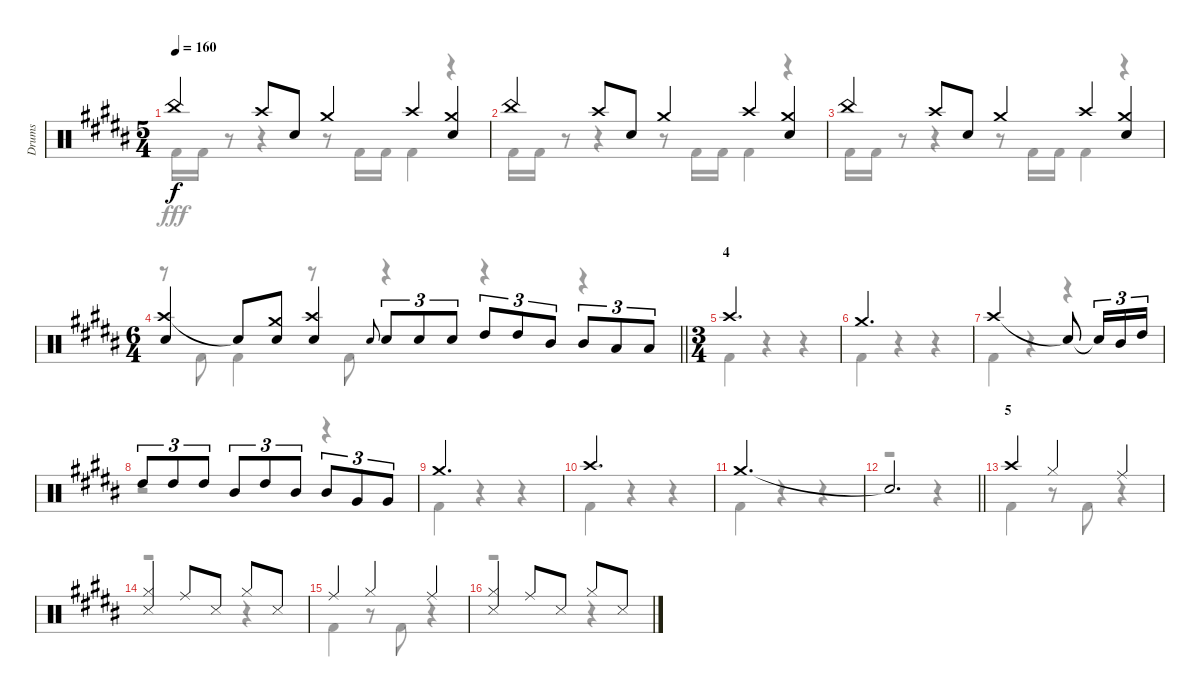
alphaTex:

\track ("Drums" "Drums") {instrument percussion}
\staff {score}
\articulation defaults
\voice
\ts (5 4)
\tempo 160
\clef neutral
\ks b "China (hit)".4{dy f} "Crash high (hit)".8 "Snare (hit) 2".8 "Crash medium (hit)".4 "Crash high (hit)".4
("Crash medium (hit)" "Snare (hit) 2").4 |
"China (hit)".4 "Crash high (hit)".8 "Snare (hit) 2".8 "Crash medium (hit)".4 "Crash high (hit)".4 ("Crash medium (hit)" "Snare (hit) 2").4 |
"China (hit)".4 "Crash high (hit)".8 "Snare (hit) 2".8 "Crash medium (hit)".4 "Crash high (hit)".4 ("Crash medium (hit)" "Snare (hit) 2").4 |
\ts (6 4)
\barLineRight lightlight
("Crash high (hit)" "Snare (hit) 2").4 "Snare (hit)"{t}.8 ("Crash medium (hit)" "Snare (hit) 2").8 ("Crash high (hit)" "Snare (hit) 2").4 "Snare (hit) 2".8{gr onbeat} "Snare (hit) 2".8{tu (3 2)} "Snare (hit) 2".8{tu (3 2)} "Snare (hit) 2".8{tu (3 2)} "High Tom (hit)".8{tu (3 2)} "High Tom (hit)".8{tu (3 2)} "Mid Tom (hit)".8{tu (3 2)} "Mid Tom (hit)".8{tu (3 2)} "Low Tom (hit)".8{tu (3 2)} "Low Tom (hit)".8{tu (3 2)} |
\ts (3 4)
\section ("" "4")
"Crash high (hit)".2{d} |
"Crash medium (hit)".2{d} |
"Crash high (hit)".2 "Snare (hit)"{t}.8 "Snare (hit)"{t}.16{tu (3 2)} "Mid Tom (hit)".16{tu (3 2)} "High Tom (hit)".16{tu (3 2)} |
"High Tom (hit)".8{tu (3 2)} "High Tom (hit)".8{tu (3 2)} "High Tom (hit)".8{tu (3 2)} "Mid Tom (hit)".8{tu (3 2)} "High Tom (hit)".8{tu (3 2)} "Mid Tom (hit)".8{tu (3 2)} "Mid Tom (hit)".8{tu (3 2)} "Very Low Tom (hit)".8{tu (3 2)} "Very Low Tom (hit)".8{tu (3 2)} |
"Crash medium (hit)".2{d} |
"Crash high (hit)".2{d} |
"Crash medium (hit)".2{d} |
\barLineRight lightlight "Snare (hit)"{t}.2{d}
|
\section ("" "5")
"Crash high (hit)".4 "Hi-Hat (closed)".4 "Ride (middle)".4 |
("Hi-Hat (closed)" "Snare (side stick) 3").4 "Ride (middle)".8 "Snare (side stick) 3".8 "Hi-Hat (closed)".8 "Snare (side stick) 3".8 |
"Ride (middle)".4 "Hi-Hat (closed)".4 "Ride (middle)".4 |
("Hi-Hat (closed)" "Snare (side stick) 3").4 "Ride (middle)".8 "Snare (side stick) 3".8 "Hi-Hat (closed)".8 "Snare (side stick) 3".8
\voice
\clef neutral
\ottava regular
\simile none
\ks b "Kick (hit) 2".16{dy fff} "Kick (hit) 2".16
r.8 r.4 r.8 "Kick (hit) 2".16 "Kick (hit) 2".16 "Kick (hit) 2".4 r.4 |
"Kick (hit) 2".16 "Kick (hit) 2".16 r.8 r.4 r.8 "Kick (hit) 2".16 "Kick (hit) 2".16 "Kick (hit) 2".4 r.4 |
"Kick (hit) 2".16 "Kick (hit) 2".16 r.8 r.4 r.8 "Kick (hit) 2".16 "Kick (hit) 2".16 "Kick (hit) 2".4 r.4 |
\barLineRight lightlight
r.8 "Kick (hit) 2".8 "Kick (hit) 2".4 r.8 "Kick (hit) 2".8 r.4 r.4 r.4 |
"Kick (hit) 2".4 r.4 r.4 |
"Kick (hit) 2".4 r.4 r.4 |
"Kick (hit) 2".4 r.4 r.4 |
r.2 r.4 |
"Kick (hit) 2".4 r.4 r.4 |
"Kick (hit) 2".4 r.4 r.4 |
"Kick (hit) 2".4 r.4 r.4 |
\barLineRight lightlight
r.2 r.4 |
"Kick (hit) 2".4 r.8 "Kick (hit) 2".8 r.4 |
r.2 r.4 |
"Kick (hit) 2".4 r.8 "Kick (hit) 2".8 r.4 |
r.2 r.4
